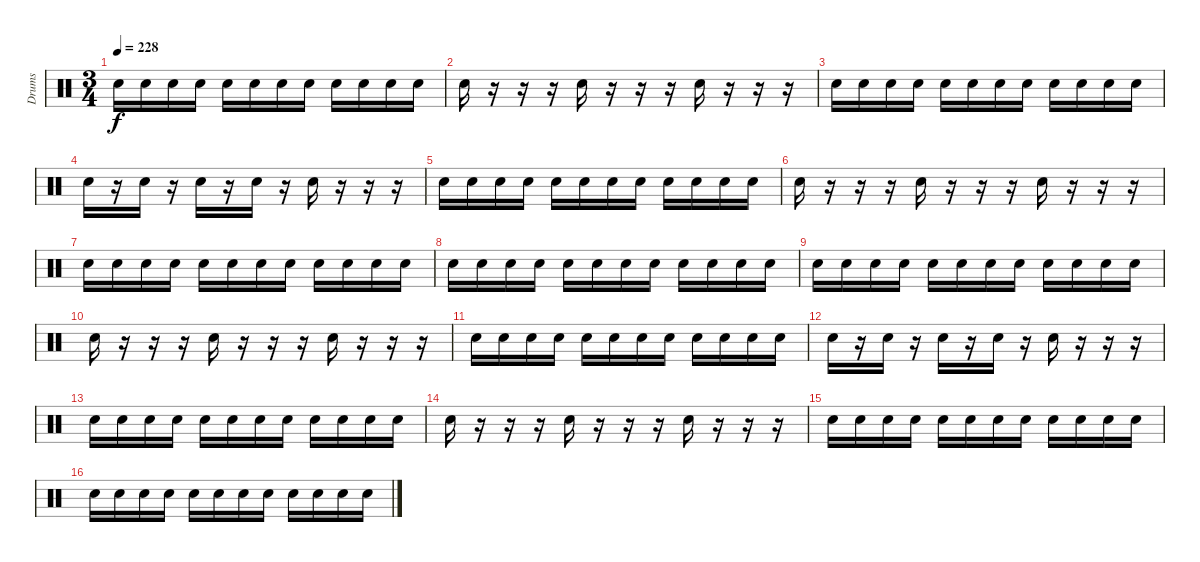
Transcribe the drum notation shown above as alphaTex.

\track ("Drums" "Drums") {instrument percussion}
\staff {score}
\articulation defaults
\ts (3 4)
\tempo 228
\clef neutral
\ks c "Snare (hit) 2".16{dy f} "Snare (hit) 2".16 "Snare (hit) 2".16 "Snare (hit) 2".16 "Snare (hit) 2".16 "Snare (hit) 2".16 "Snare (hit) 2".16 "Snare (hit) 2".16 "Snare (hit) 2".16 "Snare (hit) 2".16 "Snare (hit) 2".16 "Snare (hit) 2".16
|
"Snare (hit) 2".16 r.16 r.16 r.16 "Snare (hit) 2".16 r.16 r.16 r.16 "Snare (hit) 2".16 r.16 r.16 r.16 |
"Snare (hit) 2".16 "Snare (hit) 2".16 "Snare (hit) 2".16 "Snare (hit) 2".16 "Snare (hit) 2".16 "Snare (hit) 2".16 "Snare (hit) 2".16 "Snare (hit) 2".16 "Snare (hit) 2".16 "Snare (hit) 2".16 "Snare (hit) 2".16 "Snare (hit) 2".16 |
"Snare (hit) 2".16 r.16 "Snare (hit) 2".16 r.16 "Snare (hit) 2".16 r.16 "Snare (hit) 2".16 r.16 "Snare (hit) 2".16 r.16 r.16 r.16 |
"Snare (hit) 2".16 "Snare (hit) 2".16 "Snare (hit) 2".16 "Snare (hit) 2".16 "Snare (hit) 2".16 "Snare (hit) 2".16 "Snare (hit) 2".16 "Snare (hit) 2".16 "Snare (hit) 2".16 "Snare (hit) 2".16 "Snare (hit) 2".16 "Snare (hit) 2".16 |
"Snare (hit) 2".16 r.16 r.16 r.16 "Snare (hit) 2".16 r.16 r.16 r.16 "Snare (hit) 2".16 r.16 r.16 r.16 |
"Snare (hit) 2".16 "Snare (hit) 2".16 "Snare (hit) 2".16 "Snare (hit) 2".16 "Snare (hit) 2".16 "Snare (hit) 2".16 "Snare (hit) 2".16 "Snare (hit) 2".16 "Snare (hit) 2".16 "Snare (hit) 2".16 "Snare (hit) 2".16 "Snare (hit) 2".16 |
"Snare (hit) 2".16 "Snare (hit) 2".16 "Snare (hit) 2".16 "Snare (hit) 2".16 "Snare (hit) 2".16 "Snare (hit) 2".16 "Snare (hit) 2".16 "Snare (hit) 2".16 "Snare (hit) 2".16 "Snare (hit) 2".16 "Snare (hit) 2".16 "Snare (hit) 2".16 |
"Snare (hit) 2".16 "Snare (hit) 2".16 "Snare (hit) 2".16 "Snare (hit) 2".16 "Snare (hit) 2".16 "Snare (hit) 2".16 "Snare (hit) 2".16 "Snare (hit) 2".16 "Snare (hit) 2".16 "Snare (hit) 2".16 "Snare (hit) 2".16 "Snare (hit) 2".16 |
"Snare (hit) 2".16 r.16 r.16 r.16 "Snare (hit) 2".16 r.16 r.16 r.16 "Snare (hit) 2".16 r.16 r.16 r.16 |
"Snare (hit) 2".16 "Snare (hit) 2".16 "Snare (hit) 2".16 "Snare (hit) 2".16 "Snare (hit) 2".16 "Snare (hit) 2".16 "Snare (hit) 2".16 "Snare (hit) 2".16 "Snare (hit) 2".16 "Snare (hit) 2".16 "Snare (hit) 2".16 "Snare (hit) 2".16 |
"Snare (hit) 2".16 r.16 "Snare (hit) 2".16 r.16 "Snare (hit) 2".16 r.16 "Snare (hit) 2".16 r.16 "Snare (hit) 2".16 r.16 r.16 r.16 |
"Snare (hit) 2".16 "Snare (hit) 2".16 "Snare (hit) 2".16 "Snare (hit) 2".16 "Snare (hit) 2".16 "Snare (hit) 2".16 "Snare (hit) 2".16 "Snare (hit) 2".16 "Snare (hit) 2".16 "Snare (hit) 2".16 "Snare (hit) 2".16 "Snare (hit) 2".16 |
"Snare (hit) 2".16 r.16 r.16 r.16 "Snare (hit) 2".16 r.16 r.16 r.16 "Snare (hit) 2".16 r.16 r.16 r.16 |
"Snare (hit) 2".16 "Snare (hit) 2".16 "Snare (hit) 2".16 "Snare (hit) 2".16 "Snare (hit) 2".16 "Snare (hit) 2".16 "Snare (hit) 2".16 "Snare (hit) 2".16 "Snare (hit) 2".16 "Snare (hit) 2".16 "Snare (hit) 2".16 "Snare (hit) 2".16 |
"Snare (hit) 2".16 "Snare (hit) 2".16 "Snare (hit) 2".16 "Snare (hit) 2".16 "Snare (hit) 2".16 "Snare (hit) 2".16 "Snare (hit) 2".16 "Snare (hit) 2".16 "Snare (hit) 2".16 "Snare (hit) 2".16 "Snare (hit) 2".16 "Snare (hit) 2".16
